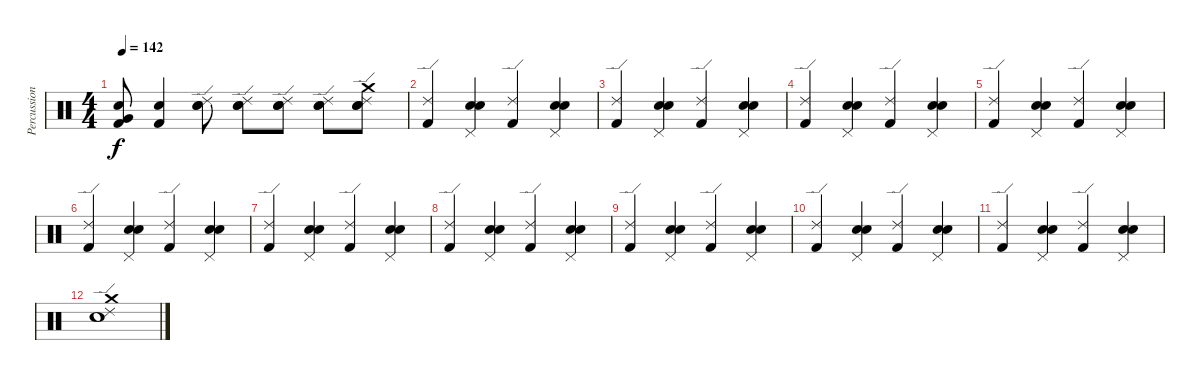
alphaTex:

\track ("Percussions" "Percussion") {instrument percussion}
\staff {score}
\articulation defaults
\ts (4 4)
\tempo 142
\clef neutral
\ks c
("Kick (hit) 2" "Very Low Tom (hit)" "Electric Snare (hit)").8{dy f} ("Kick (hit) 2" "Electric Snare (hit)").4 ("Snare (hit) 2" "Electric Snare (hit)" "Ride (edge) 2").8 ("Snare (hit) 2" "Electric Snare (hit)" "Ride (edge) 2").8 ("Snare (hit) 2" "Electric Snare (hit)" "Ride (edge) 2").8 ("Snare (hit) 2" "Electric Snare (hit)" "Ride (edge) 2").8 ("Snare (hit) 2" "Electric Snare (hit)" "Ride (edge) 2" "Crash medium (hit)").8 |
("Kick (hit) 2" "Ride (edge) 2").4 ("Snare (hit) 2" "Electric Snare (hit)" "Pedal Hi-Hat (hit)").4 ("Kick (hit) 2" "Ride (edge) 2").4 ("Snare (hit) 2" "Electric Snare (hit)" "Pedal Hi-Hat (hit)").4 |
("Kick (hit) 2" "Ride (edge) 2").4 ("Snare (hit) 2" "Electric Snare (hit)" "Pedal Hi-Hat (hit)").4 ("Kick (hit) 2" "Ride (edge) 2").4 ("Snare (hit) 2" "Electric Snare (hit)" "Pedal Hi-Hat (hit)").4 |
("Kick (hit) 2" "Ride (edge) 2").4 ("Snare (hit) 2" "Electric Snare (hit)" "Pedal Hi-Hat (hit)").4 ("Kick (hit) 2" "Ride (edge) 2").4 ("Snare (hit) 2" "Electric Snare (hit)" "Pedal Hi-Hat (hit)").4 |
("Kick (hit) 2" "Ride (edge) 2").4 ("Snare (hit) 2" "Electric Snare (hit)" "Pedal Hi-Hat (hit)").4 ("Kick (hit) 2" "Ride (edge) 2").4 ("Snare (hit) 2" "Electric Snare (hit)" "Pedal Hi-Hat (hit)").4 |
("Kick (hit) 2" "Ride (edge) 2").4 ("Snare (hit) 2" "Electric Snare (hit)" "Pedal Hi-Hat (hit)").4 ("Kick (hit) 2" "Ride (edge) 2").4 ("Snare (hit) 2" "Electric Snare (hit)" "Pedal Hi-Hat (hit)").4 |
("Kick (hit) 2" "Ride (edge) 2").4 ("Snare (hit) 2" "Electric Snare (hit)" "Pedal Hi-Hat (hit)").4 ("Kick (hit) 2" "Ride (edge) 2").4 ("Snare (hit) 2" "Electric Snare (hit)" "Pedal Hi-Hat (hit)").4 |
("Kick (hit) 2" "Ride (edge) 2").4 ("Snare (hit) 2" "Electric Snare (hit)" "Pedal Hi-Hat (hit)").4 ("Kick (hit) 2" "Ride (edge) 2").4 ("Snare (hit) 2" "Electric Snare (hit)" "Pedal Hi-Hat (hit)").4 |
("Kick (hit) 2" "Ride (edge) 2").4 ("Snare (hit) 2" "Electric Snare (hit)" "Pedal Hi-Hat (hit)").4 ("Kick (hit) 2" "Ride (edge) 2").4 ("Snare (hit) 2" "Electric Snare (hit)" "Pedal Hi-Hat (hit)").4 |
("Kick (hit) 2" "Ride (edge) 2").4 ("Snare (hit) 2" "Electric Snare (hit)" "Pedal Hi-Hat (hit)").4 ("Kick (hit) 2" "Ride (edge) 2").4 ("Snare (hit) 2" "Electric Snare (hit)" "Pedal Hi-Hat (hit)").4 |
("Kick (hit) 2" "Ride (edge) 2").4 ("Snare (hit) 2" "Electric Snare (hit)" "Pedal Hi-Hat (hit)").4 ("Kick (hit) 2" "Ride (edge) 2").4 ("Snare (hit) 2" "Electric Snare (hit)" "Pedal Hi-Hat (hit)").4 |
("Snare (hit) 2" "Electric Snare (hit)" "Ride (edge) 2" "Crash medium (hit)").1
